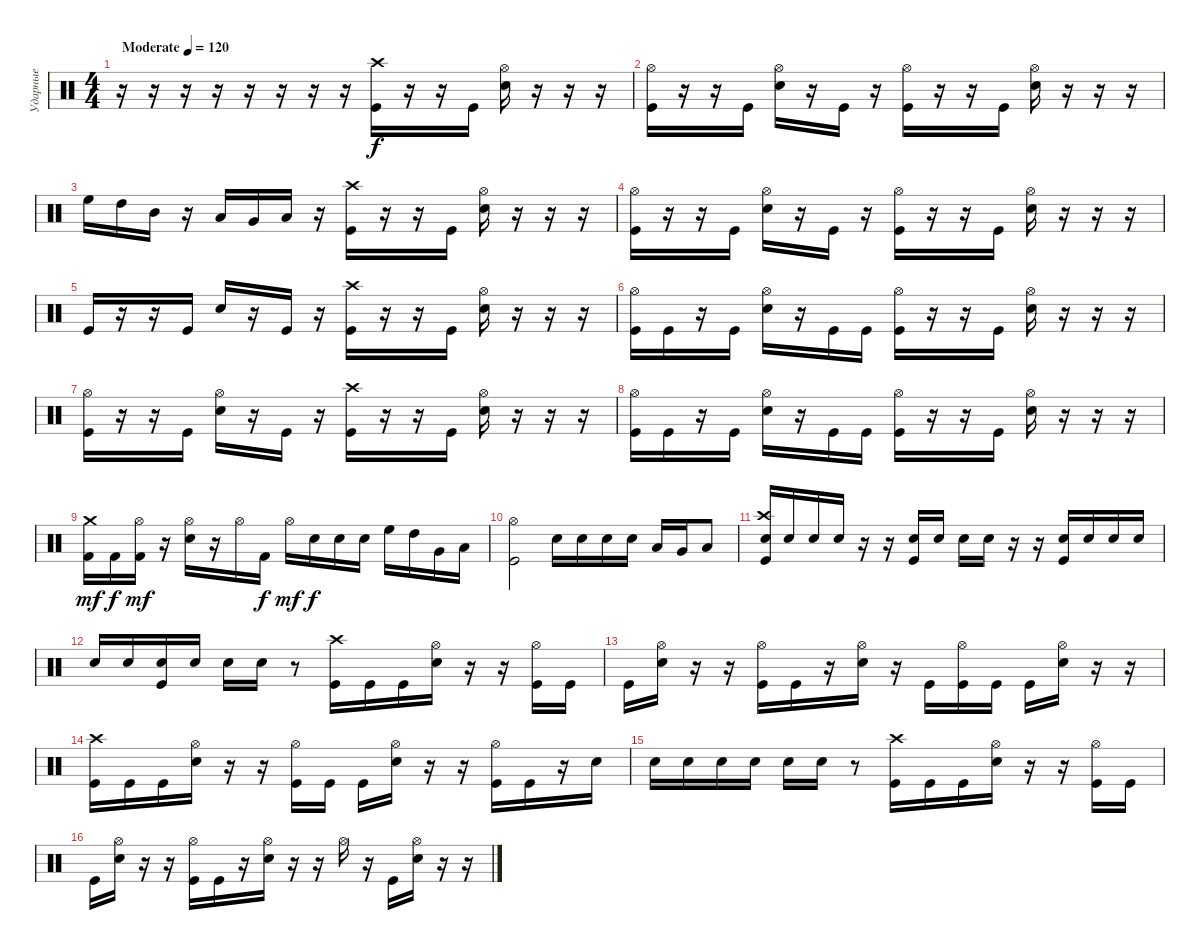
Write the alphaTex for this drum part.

\track ("Ударные" "Ударные") {instrument percussion}
\staff {score}
\articulation defaults
\ts (4 4)
\tempo (120 "Moderate")
\clef neutral
\ks c
r.16{dy f} r.16 r.16 r.16 r.16 r.16 r.16 r.16 ("Kick (hit)" "Crash high (hit)").16 r.16 r.16 "Kick (hit)".16 ("Snare (hit) 2" "Hi-Hat (open)").16 r.16 r.16 r.16 |
("Kick (hit)" "Hi-Hat (open)").16 r.16 r.16 "Kick (hit)".16 ("Snare (hit) 2" "Hi-Hat (open)").16 r.16 "Kick (hit)".16 r.16 ("Kick (hit)" "Hi-Hat (open)").16 r.16 r.16 "Kick (hit)".16 ("Snare (hit) 2" "Hi-Hat (open)").16 r.16 r.16 r.16 |
"High Floor Tom (hit)".16 "High Tom (hit)".16 "Mid Tom (hit)".16 r.16 "Low Tom (hit)".16 "Very Low Tom (hit)".16 "Low Floor Tom (hit)".16 r.16 ("Kick (hit)" "Crash high (hit)").16 r.16 r.16 "Kick (hit)".16 ("Snare (hit) 2" "Hi-Hat (open)").16 r.16 r.16 r.16 |
("Kick (hit)" "Hi-Hat (open)").16 r.16 r.16 "Kick (hit)".16 ("Snare (hit) 2" "Hi-Hat (open)").16 r.16 "Kick (hit)".16 r.16 ("Kick (hit)" "Hi-Hat (open)").16 r.16 r.16 "Kick (hit)".16 ("Snare (hit) 2" "Hi-Hat (open)").16 r.16 r.16 r.16 |
"Kick (hit)".16 r.16 r.16 "Kick (hit)".16 "Snare (hit) 2".16 r.16 "Kick (hit)".16 r.16 ("Kick (hit)" "Crash high (hit)").16 r.16 r.16 "Kick (hit)".16 ("Snare (hit) 2" "Hi-Hat (open)").16 r.16 r.16 r.16 |
("Kick (hit)" "Hi-Hat (open)").16 "Kick (hit)".16 r.16 "Kick (hit)".16 ("Snare (hit) 2" "Hi-Hat (open)").16 r.16 "Kick (hit)".16 "Kick (hit)".16 ("Kick (hit)" "Hi-Hat (open)").16 r.16 r.16 "Kick (hit)".16 ("Snare (hit) 2" "Hi-Hat (open)").16 r.16 r.16 r.16 |
("Kick (hit)" "Hi-Hat (open)").16 r.16 r.16 "Kick (hit)".16 ("Snare (hit) 2" "Hi-Hat (open)").16 r.16 "Kick (hit)".16 r.16 ("Kick (hit)" "Crash high (hit)").16 r.16 r.16 "Kick (hit)".16 ("Snare (hit) 2" "Hi-Hat (open)").16 r.16 r.16 r.16 |
("Kick (hit)" "Hi-Hat (open)").16 "Kick (hit)".16 r.16 "Kick (hit)".16 ("Snare (hit) 2" "Hi-Hat (open)").16 r.16 "Kick (hit)".16 "Kick (hit)".16 ("Kick (hit)" "Hi-Hat (open)").16 r.16 r.16 "Kick (hit)".16 ("Snare (hit) 2" "Hi-Hat (open)").16 r.16 r.16 r.16 |
("Crash medium (hit)" "Kick (hit) 2").16{dy mf} "Kick (hit) 2".16{dy f} ("Hi-Hat (open)" "Kick (hit) 2").16{dy mf} r.16 ("Hi-Hat (open)" "Snare (hit) 2").16 r.16 "Hi-Hat (open)".16 "Kick (hit) 2".16{dy f} "Hi-Hat (open)".16{dy mf} "Snare (hit) 2".16{dy f} "Snare (hit) 2".16 "Snare (hit) 2".16 "High Floor Tom (hit)".16 "High Tom (hit)".16 "Very Low Tom (hit)".16 "Low Floor Tom (hit)".16 |
("Hi-Hat (open)" "Kick (hit)").2 "Snare (hit) 2".16 "Snare (hit) 2".16 "Snare (hit) 2".16 "Snare (hit) 2".16 "Low Tom (hit)".16 "Very Low Tom (hit)".16 "Low Floor Tom (hit)".8 |
("Snare (hit) 2" "Kick (hit)" "Crash high (hit)").16 "Snare (hit) 2".16 "Snare (hit) 2".16 "Snare (hit) 2".16 r.16 r.16 ("Snare (hit) 2" "Kick (hit)").16 "Snare (hit) 2".16 "Snare (hit) 2".16 "Snare (hit) 2".16 r.16 r.16 ("Snare (hit) 2" "Kick (hit)").16 "Snare (hit) 2".16 "Snare (hit) 2".16 "Snare (hit) 2".16 |
"Snare (hit) 2".16 "Snare (hit) 2".16 ("Snare (hit) 2" "Kick (hit)").16 "Snare (hit) 2".16 "Snare (hit) 2".16 "Snare (hit) 2".16 r.8 ("Kick (hit)" "Crash high (hit)").16 "Kick (hit)".16 "Kick (hit)".16 ("Snare (hit) 2" "Hi-Hat (open)").16 r.16 r.16 ("Kick (hit)" "Hi-Hat (open)").16 "Kick (hit)".16 |
"Kick (hit)".16 ("Snare (hit) 2" "Hi-Hat (open)").16 r.16 r.16 ("Kick (hit)" "Hi-Hat (open)").16 "Kick (hit)".16 r.16 ("Snare (hit) 2" "Hi-Hat (open)").16 r.16 "Kick (hit)".16 ("Kick (hit)" "Hi-Hat (open)").16 "Kick (hit)".16 "Kick (hit)".16 ("Snare (hit) 2" "Hi-Hat (open)").16 r.16 r.16 |
("Kick (hit)" "Crash high (hit)").16 "Kick (hit)".16 "Kick (hit)".16 ("Snare (hit) 2" "Hi-Hat (open)").16 r.16 r.16 ("Kick (hit)" "Hi-Hat (open)").16 "Kick (hit)".16 "Kick (hit)".16 ("Snare (hit) 2" "Hi-Hat (open)").16 r.16 r.16 ("Kick (hit)" "Hi-Hat (open)").16 "Kick (hit)".16 r.16 "Snare (hit) 2".16 |
"Snare (hit) 2".16 "Snare (hit) 2".16 "Snare (hit) 2".16 "Snare (hit) 2".16 "Snare (hit) 2".16 "Snare (hit) 2".16 r.8 ("Kick (hit)" "Crash high (hit)").16 "Kick (hit)".16 "Kick (hit)".16 ("Snare (hit) 2" "Hi-Hat (open)").16 r.16 r.16 ("Kick (hit)" "Hi-Hat (open)").16 "Kick (hit)".16 |
"Kick (hit)".16 ("Snare (hit) 2" "Hi-Hat (open)").16 r.16 r.16 ("Kick (hit)" "Hi-Hat (open)").16 "Kick (hit)".16 r.16 ("Snare (hit) 2" "Hi-Hat (open)").16 r.16 r.16 "Hi-Hat (open)".16 r.16 "Kick (hit)".16 ("Snare (hit) 2" "Hi-Hat (open)").16 r.16 r.16
